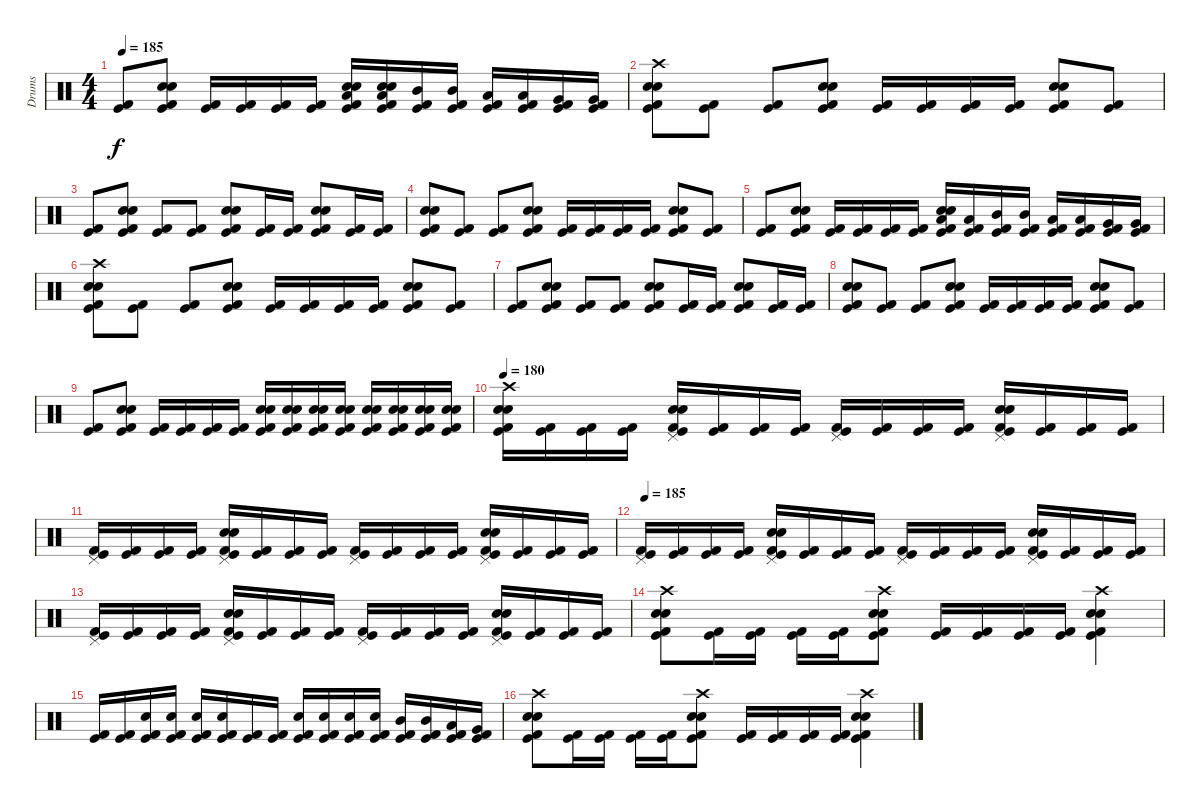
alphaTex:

\track ("Drums" "Drums") {instrument percussion}
\staff {score}
\articulation defaults
\ts (4 4)
\tempo 185
\clef neutral
\ks c
("Kick (hit) 2" "Kick (hit)").8{dy f} ("Electric Snare (hit)" "Snare (hit) 2" "Kick (hit) 2" "Kick (hit)").8 ("Kick (hit) 2" "Kick (hit)").16 ("Kick (hit) 2" "Kick (hit)").16 ("Kick (hit) 2" "Kick (hit)").16 ("Kick (hit) 2" "Kick (hit)").16 ("Electric Snare (hit)" "Snare (hit) 2" "Low Tom (hit)" "Kick (hit) 2" "Kick (hit)").16 ("Electric Snare (hit)" "Snare (hit) 2" "Low Tom (hit)" "Kick (hit) 2" "Kick (hit)").16 ("Mid Tom (hit)" "Kick (hit) 2" "Kick (hit)").16 ("Mid Tom (hit)" "Kick (hit) 2" "Kick (hit)").16 ("Low Tom (hit)" "Kick (hit) 2" "Kick (hit)").16 ("Low Tom (hit)" "Kick (hit) 2" "Kick (hit)").16 ("Very Low Tom (hit)" "Kick (hit) 2" "Kick (hit)").16 ("Very Low Tom (hit)" "Kick (hit) 2" "Kick (hit)").16 |
("Crash high (hit)" "Electric Snare (hit)" "Snare (hit) 2" "Kick (hit) 2" "Kick (hit)").8 ("Kick (hit) 2" "Kick (hit)").8 ("Kick (hit) 2" "Kick (hit)").8 ("Electric Snare (hit)" "Snare (hit) 2" "Kick (hit) 2" "Kick (hit)").8 ("Kick (hit) 2" "Kick (hit)").16 ("Kick (hit) 2" "Kick (hit)").16 ("Kick (hit) 2" "Kick (hit)").16 ("Kick (hit) 2" "Kick (hit)").16 ("Electric Snare (hit)" "Snare (hit) 2" "Kick (hit) 2" "Kick (hit)").8 ("Kick (hit) 2" "Kick (hit)").8 |
("Kick (hit) 2" "Kick (hit)").8 ("Electric Snare (hit)" "Snare (hit) 2" "Kick (hit) 2" "Kick (hit)").8 ("Kick (hit) 2" "Kick (hit)").8 ("Kick (hit) 2" "Kick (hit)").8 ("Electric Snare (hit)" "Snare (hit) 2" "Kick (hit) 2" "Kick (hit)").8 ("Kick (hit) 2" "Kick (hit)").16 ("Kick (hit) 2" "Kick (hit)").16 ("Electric Snare (hit)" "Snare (hit) 2" "Kick (hit) 2" "Kick (hit)").8 ("Kick (hit) 2" "Kick (hit)").16 ("Kick (hit) 2" "Kick (hit)").16 |
("Electric Snare (hit)" "Snare (hit) 2" "Kick (hit) 2" "Kick (hit)").8 ("Kick (hit) 2" "Kick (hit)").8 ("Kick (hit) 2" "Kick (hit)").8 ("Electric Snare (hit)" "Snare (hit) 2" "Kick (hit) 2" "Kick (hit)").8 ("Kick (hit) 2" "Kick (hit)").16 ("Kick (hit) 2" "Kick (hit)").16 ("Kick (hit) 2" "Kick (hit)").16 ("Kick (hit) 2" "Kick (hit)").16 ("Electric Snare (hit)" "Snare (hit) 2" "Kick (hit) 2" "Kick (hit)").8 ("Kick (hit) 2" "Kick (hit)").8 |
("Kick (hit) 2" "Kick (hit)").8 ("Electric Snare (hit)" "Snare (hit) 2" "Kick (hit) 2" "Kick (hit)").8 ("Kick (hit) 2" "Kick (hit)").16 ("Kick (hit) 2" "Kick (hit)").16 ("Kick (hit) 2" "Kick (hit)").16 ("Kick (hit) 2" "Kick (hit)").16 ("Electric Snare (hit)" "Snare (hit) 2" "Low Tom (hit)" "Kick (hit) 2" "Kick (hit)").16 ("Low Tom (hit)" "Kick (hit) 2" "Kick (hit)").16 ("Mid Tom (hit)" "Kick (hit) 2" "Kick (hit)").16 ("Mid Tom (hit)" "Kick (hit) 2" "Kick (hit)").16 ("Low Tom (hit)" "Kick (hit) 2" "Kick (hit)").16 ("Low Tom (hit)" "Kick (hit) 2" "Kick (hit)").16 ("Very Low Tom (hit)" "Kick (hit) 2" "Kick (hit)").16 ("Very Low Tom (hit)" "Kick (hit) 2" "Kick (hit)").16 |
("Crash high (hit)" "Electric Snare (hit)" "Snare (hit) 2" "Kick (hit) 2" "Kick (hit)").8 ("Kick (hit) 2" "Kick (hit)").8 ("Kick (hit) 2" "Kick (hit)").8 ("Electric Snare (hit)" "Snare (hit) 2" "Kick (hit) 2" "Kick (hit)").8 ("Kick (hit) 2" "Kick (hit)").16 ("Kick (hit) 2" "Kick (hit)").16 ("Kick (hit) 2" "Kick (hit)").16 ("Kick (hit) 2" "Kick (hit)").16 ("Electric Snare (hit)" "Snare (hit) 2" "Kick (hit) 2" "Kick (hit)").8 ("Kick (hit) 2" "Kick (hit)").8 |
("Kick (hit) 2" "Kick (hit)").8 ("Electric Snare (hit)" "Snare (hit) 2" "Kick (hit) 2" "Kick (hit)").8 ("Kick (hit) 2" "Kick (hit)").8 ("Kick (hit) 2" "Kick (hit)").8 ("Electric Snare (hit)" "Snare (hit) 2" "Kick (hit) 2" "Kick (hit)").8 ("Kick (hit) 2" "Kick (hit)").16 ("Kick (hit) 2" "Kick (hit)").16 ("Electric Snare (hit)" "Snare (hit) 2" "Kick (hit) 2" "Kick (hit)").8 ("Kick (hit) 2" "Kick (hit)").16 ("Kick (hit) 2" "Kick (hit)").16 |
("Electric Snare (hit)" "Snare (hit) 2" "Kick (hit) 2" "Kick (hit)").8 ("Kick (hit) 2" "Kick (hit)").8 ("Kick (hit) 2" "Kick (hit)").8 ("Electric Snare (hit)" "Snare (hit) 2" "Kick (hit) 2" "Kick (hit)").8 ("Kick (hit) 2" "Kick (hit)").16 ("Kick (hit) 2" "Kick (hit)").16 ("Kick (hit) 2" "Kick (hit)").16 ("Kick (hit) 2" "Kick (hit)").16 ("Electric Snare (hit)" "Snare (hit) 2" "Kick (hit) 2" "Kick (hit)").8 ("Kick (hit) 2" "Kick (hit)").8 |
("Kick (hit) 2" "Kick (hit)").8 ("Electric Snare (hit)" "Snare (hit) 2" "Kick (hit) 2" "Kick (hit)").8 ("Kick (hit) 2" "Kick (hit)").16 ("Kick (hit) 2" "Kick (hit)").16 ("Kick (hit) 2" "Kick (hit)").16 ("Kick (hit) 2" "Kick (hit)").16 ("Electric Snare (hit)" "Snare (hit) 2" "Kick (hit) 2" "Kick (hit)").16 ("Electric Snare (hit)" "Snare (hit) 2" "Kick (hit) 2" "Kick (hit)").16 ("Electric Snare (hit)" "Snare (hit) 2" "Kick (hit) 2" "Kick (hit)").16 ("Electric Snare (hit)" "Snare (hit) 2" "Kick (hit) 2" "Kick (hit)").16 ("Electric Snare (hit)" "Snare (hit) 2" "Kick (hit) 2" "Kick (hit)").16 ("Electric Snare (hit)" "Snare (hit) 2" "Kick (hit) 2" "Kick (hit)").16 ("Electric Snare (hit)" "Snare (hit) 2" "Kick (hit) 2" "Kick (hit)").16 ("Electric Snare (hit)" "Snare (hit) 2" "Kick (hit) 2" "Kick (hit)").16 |
\tempo 180
("Crash high (hit)" "Electric Snare (hit)" "Snare (hit) 2" "Kick (hit) 2" "Kick (hit)").16 ("Kick (hit) 2" "Kick (hit)").16 ("Kick (hit) 2" "Kick (hit)").16 ("Kick (hit) 2" "Kick (hit)").16 ("Pedal Hi-Hat (hit)" "Electric Snare (hit)" "Snare (hit) 2" "Kick (hit) 2" "Kick (hit)").16 ("Kick (hit) 2" "Kick (hit)").16 ("Kick (hit) 2" "Kick (hit)").16 ("Kick (hit) 2" "Kick (hit)").16 ("Pedal Hi-Hat (hit)" "Kick (hit) 2" "Kick (hit)").16 ("Kick (hit) 2" "Kick (hit)").16 ("Kick (hit) 2" "Kick (hit)").16 ("Kick (hit) 2" "Kick (hit)").16 ("Pedal Hi-Hat (hit)" "Electric Snare (hit)" "Snare (hit) 2" "Kick (hit) 2" "Kick (hit)").16 ("Kick (hit) 2" "Kick (hit)").16 ("Kick (hit) 2" "Kick (hit)").16 ("Kick (hit) 2" "Kick (hit)").16 |
("Pedal Hi-Hat (hit)" "Kick (hit) 2" "Kick (hit)").16 ("Kick (hit) 2" "Kick (hit)").16 ("Kick (hit) 2" "Kick (hit)").16 ("Kick (hit) 2" "Kick (hit)").16 ("Pedal Hi-Hat (hit)" "Electric Snare (hit)" "Snare (hit) 2" "Kick (hit) 2" "Kick (hit)").16 ("Kick (hit) 2" "Kick (hit)").16 ("Kick (hit) 2" "Kick (hit)").16 ("Kick (hit) 2" "Kick (hit)").16 ("Pedal Hi-Hat (hit)" "Kick (hit) 2" "Kick (hit)").16 ("Kick (hit) 2" "Kick (hit)").16 ("Kick (hit) 2" "Kick (hit)").16 ("Kick (hit) 2" "Kick (hit)").16 ("Pedal Hi-Hat (hit)" "Electric Snare (hit)" "Snare (hit) 2" "Kick (hit) 2" "Kick (hit)").16 ("Kick (hit) 2" "Kick (hit)").16 ("Kick (hit) 2" "Kick (hit)").16 ("Kick (hit) 2" "Kick (hit)").16 |
\tempo 185
("Pedal Hi-Hat (hit)" "Kick (hit) 2" "Kick (hit)").16 ("Kick (hit) 2" "Kick (hit)").16 ("Kick (hit) 2" "Kick (hit)").16 ("Kick (hit) 2" "Kick (hit)").16 ("Pedal Hi-Hat (hit)" "Electric Snare (hit)" "Snare (hit) 2" "Kick (hit) 2" "Kick (hit)").16 ("Kick (hit) 2" "Kick (hit)").16 ("Kick (hit) 2" "Kick (hit)").16 ("Kick (hit) 2" "Kick (hit)").16 ("Pedal Hi-Hat (hit)" "Kick (hit) 2" "Kick (hit)").16 ("Kick (hit) 2" "Kick (hit)").16 ("Kick (hit) 2" "Kick (hit)").16 ("Kick (hit) 2" "Kick (hit)").16 ("Pedal Hi-Hat (hit)" "Electric Snare (hit)" "Snare (hit) 2" "Kick (hit) 2" "Kick (hit)").16 ("Kick (hit) 2" "Kick (hit)").16 ("Kick (hit) 2" "Kick (hit)").16 ("Kick (hit) 2" "Kick (hit)").16 |
("Pedal Hi-Hat (hit)" "Kick (hit) 2" "Kick (hit)").16 ("Kick (hit) 2" "Kick (hit)").16 ("Kick (hit) 2" "Kick (hit)").16 ("Kick (hit) 2" "Kick (hit)").16 ("Pedal Hi-Hat (hit)" "Electric Snare (hit)" "Snare (hit) 2" "Kick (hit) 2" "Kick (hit)").16 ("Kick (hit) 2" "Kick (hit)").16 ("Kick (hit) 2" "Kick (hit)").16 ("Kick (hit) 2" "Kick (hit)").16 ("Pedal Hi-Hat (hit)" "Kick (hit) 2" "Kick (hit)").16 ("Kick (hit) 2" "Kick (hit)").16 ("Kick (hit) 2" "Kick (hit)").16 ("Kick (hit) 2" "Kick (hit)").16 ("Pedal Hi-Hat (hit)" "Electric Snare (hit)" "Snare (hit) 2" "Kick (hit) 2" "Kick (hit)").16 ("Kick (hit) 2" "Kick (hit)").16 ("Kick (hit) 2" "Kick (hit)").16 ("Kick (hit) 2" "Kick (hit)").16 |
("Crash high (hit)" "Electric Snare (hit)" "Snare (hit) 2" "Kick (hit) 2" "Kick (hit)").8 ("Kick (hit) 2" "Kick (hit)").16 ("Kick (hit) 2" "Kick (hit)").16 ("Kick (hit) 2" "Kick (hit)").16 ("Kick (hit) 2" "Kick (hit)").16 ("Crash high (hit)" "Electric Snare (hit)" "Snare (hit) 2" "Kick (hit) 2" "Kick (hit)").8 ("Kick (hit) 2" "Kick (hit)").16 ("Kick (hit) 2" "Kick (hit)").16 ("Kick (hit) 2" "Kick (hit)").16 ("Kick (hit) 2" "Kick (hit)").16 ("Crash high (hit)" "Electric Snare (hit)" "Snare (hit) 2" "Kick (hit) 2" "Kick (hit)").4 |
("Kick (hit) 2" "Kick (hit)").16 ("Kick (hit) 2" "Kick (hit)").16 ("Electric Snare (hit)" "Kick (hit) 2" "Kick (hit)").16 ("Electric Snare (hit)" "Kick (hit) 2" "Kick (hit)").16 ("Electric Snare (hit)" "Kick (hit) 2" "Kick (hit)").16 ("Electric Snare (hit)" "Kick (hit) 2" "Kick (hit)").16 ("Kick (hit) 2" "Kick (hit)").16 ("Kick (hit) 2" "Kick (hit)").16 ("Electric Snare (hit)" "Kick (hit) 2" "Kick (hit)").16 ("Electric Snare (hit)" "Kick (hit) 2" "Kick (hit)").16 ("Electric Snare (hit)" "Kick (hit) 2" "Kick (hit)").16 ("Electric Snare (hit)" "Kick (hit) 2" "Kick (hit)").16 ("Mid Tom (hit)" "Kick (hit) 2" "Kick (hit)").16 ("Mid Tom (hit)" "Kick (hit) 2" "Kick (hit)").16 ("Low Tom (hit)" "Kick (hit) 2" "Kick (hit)").16 ("Very Low Tom (hit)" "Kick (hit) 2" "Kick (hit)").16 |
("Crash high (hit)" "Electric Snare (hit)" "Snare (hit) 2" "Kick (hit) 2" "Kick (hit)").8 ("Kick (hit) 2" "Kick (hit)").16 ("Kick (hit) 2" "Kick (hit)").16 ("Kick (hit) 2" "Kick (hit)").16 ("Kick (hit) 2" "Kick (hit)").16 ("Crash high (hit)" "Electric Snare (hit)" "Snare (hit) 2" "Kick (hit) 2" "Kick (hit)").8 ("Kick (hit) 2" "Kick (hit)").16 ("Kick (hit) 2" "Kick (hit)").16 ("Kick (hit) 2" "Kick (hit)").16 ("Kick (hit) 2" "Kick (hit)").16 ("Crash high (hit)" "Electric Snare (hit)" "Snare (hit) 2" "Kick (hit) 2" "Kick (hit)").4
